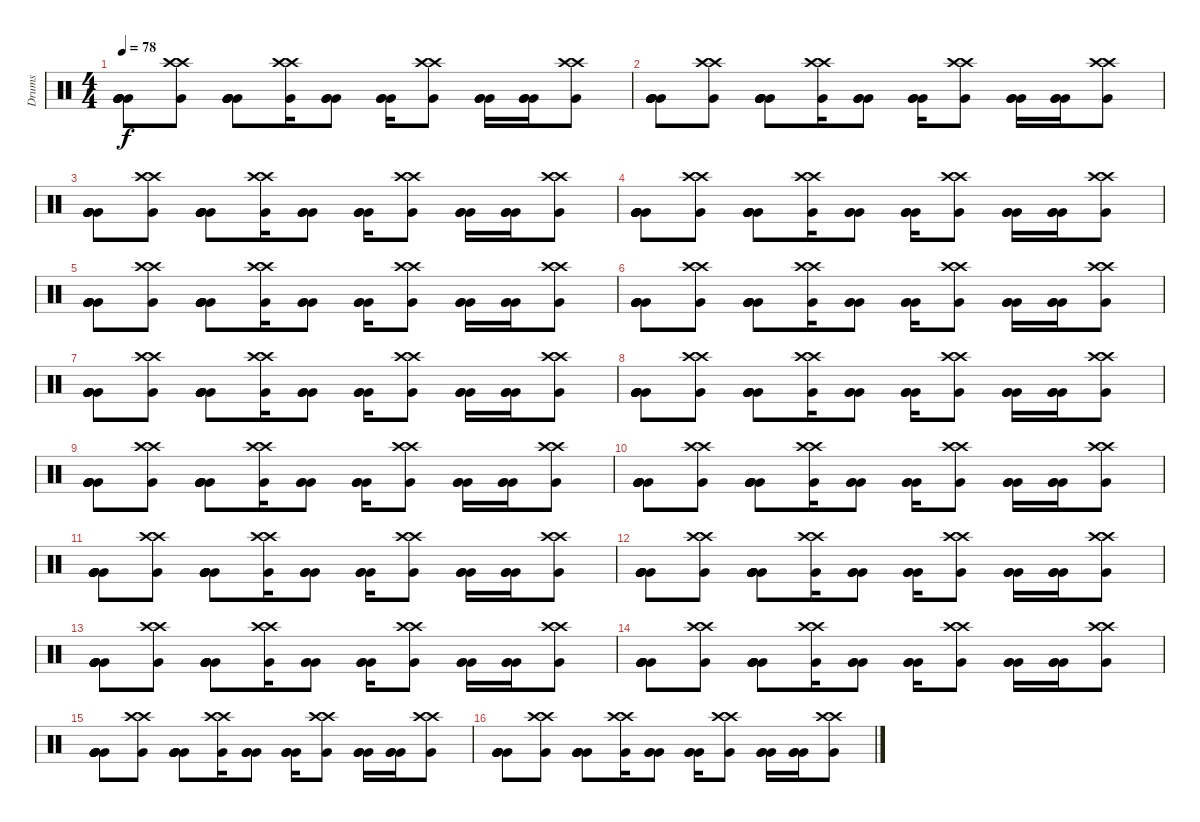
\track ("Drums" "Drums") {instrument percussion}
\staff {score}
\articulation defaults
\ts (4 4)
\tempo 78
\clef neutral
\ks c
("Very Low Tom (hit)" "Very Low Tom (hit)" "Very Low Tom (hit)" "Very Low Tom (hit)" "Very Low Tom (hit)").8{dy f} ("Crash high (hit)" "Crash high (hit)" "Very Low Tom (hit)").8 ("Very Low Tom (hit)" "Very Low Tom (hit)" "Very Low Tom (hit)" "Very Low Tom (hit)" "Very Low Tom (hit)").8 ("Crash high (hit)" "Crash high (hit)" "Very Low Tom (hit)").16 ("Very Low Tom (hit)" "Very Low Tom (hit)" "Very Low Tom (hit)").8 ("Very Low Tom (hit)" "Very Low Tom (hit)" "Very Low Tom (hit)").16 ("Crash high (hit)" "Crash high (hit)" "Very Low Tom (hit)").8 ("Very Low Tom (hit)" "Very Low Tom (hit)" "Very Low Tom (hit)").16 ("Very Low Tom (hit)" "Very Low Tom (hit)" "Very Low Tom (hit)").16 ("Crash high (hit)" "Crash high (hit)" "Very Low Tom (hit)").8 |
("Very Low Tom (hit)" "Very Low Tom (hit)" "Very Low Tom (hit)" "Very Low Tom (hit)" "Very Low Tom (hit)").8 ("Crash high (hit)" "Crash high (hit)" "Very Low Tom (hit)").8 ("Very Low Tom (hit)" "Very Low Tom (hit)" "Very Low Tom (hit)" "Very Low Tom (hit)" "Very Low Tom (hit)").8 ("Crash high (hit)" "Crash high (hit)" "Very Low Tom (hit)").16 ("Very Low Tom (hit)" "Very Low Tom (hit)" "Very Low Tom (hit)").8 ("Very Low Tom (hit)" "Very Low Tom (hit)" "Very Low Tom (hit)").16 ("Crash high (hit)" "Crash high (hit)" "Very Low Tom (hit)").8 ("Very Low Tom (hit)" "Very Low Tom (hit)" "Very Low Tom (hit)").16 ("Very Low Tom (hit)" "Very Low Tom (hit)" "Very Low Tom (hit)").16 ("Crash high (hit)" "Crash high (hit)" "Very Low Tom (hit)").8 |
("Very Low Tom (hit)" "Very Low Tom (hit)" "Very Low Tom (hit)" "Very Low Tom (hit)" "Very Low Tom (hit)").8 ("Crash high (hit)" "Crash high (hit)" "Very Low Tom (hit)").8 ("Very Low Tom (hit)" "Very Low Tom (hit)" "Very Low Tom (hit)" "Very Low Tom (hit)" "Very Low Tom (hit)").8 ("Crash high (hit)" "Crash high (hit)" "Very Low Tom (hit)").16 ("Very Low Tom (hit)" "Very Low Tom (hit)" "Very Low Tom (hit)").8 ("Very Low Tom (hit)" "Very Low Tom (hit)" "Very Low Tom (hit)").16 ("Crash high (hit)" "Crash high (hit)" "Very Low Tom (hit)").8 ("Very Low Tom (hit)" "Very Low Tom (hit)" "Very Low Tom (hit)").16 ("Very Low Tom (hit)" "Very Low Tom (hit)" "Very Low Tom (hit)").16 ("Crash high (hit)" "Crash high (hit)" "Very Low Tom (hit)").8 |
("Very Low Tom (hit)" "Very Low Tom (hit)" "Very Low Tom (hit)" "Very Low Tom (hit)" "Very Low Tom (hit)").8 ("Crash high (hit)" "Crash high (hit)" "Very Low Tom (hit)").8 ("Very Low Tom (hit)" "Very Low Tom (hit)" "Very Low Tom (hit)" "Very Low Tom (hit)" "Very Low Tom (hit)").8 ("Crash high (hit)" "Crash high (hit)" "Very Low Tom (hit)").16 ("Very Low Tom (hit)" "Very Low Tom (hit)" "Very Low Tom (hit)").8 ("Very Low Tom (hit)" "Very Low Tom (hit)" "Very Low Tom (hit)").16 ("Crash high (hit)" "Crash high (hit)" "Very Low Tom (hit)").8 ("Very Low Tom (hit)" "Very Low Tom (hit)" "Very Low Tom (hit)").16 ("Very Low Tom (hit)" "Very Low Tom (hit)" "Very Low Tom (hit)").16 ("Crash high (hit)" "Crash high (hit)" "Very Low Tom (hit)").8 |
("Very Low Tom (hit)" "Very Low Tom (hit)" "Very Low Tom (hit)" "Very Low Tom (hit)" "Very Low Tom (hit)").8 ("Crash high (hit)" "Crash high (hit)" "Very Low Tom (hit)").8 ("Very Low Tom (hit)" "Very Low Tom (hit)" "Very Low Tom (hit)" "Very Low Tom (hit)" "Very Low Tom (hit)").8 ("Crash high (hit)" "Crash high (hit)" "Very Low Tom (hit)").16 ("Very Low Tom (hit)" "Very Low Tom (hit)" "Very Low Tom (hit)").8 ("Very Low Tom (hit)" "Very Low Tom (hit)" "Very Low Tom (hit)").16 ("Crash high (hit)" "Crash high (hit)" "Very Low Tom (hit)").8 ("Very Low Tom (hit)" "Very Low Tom (hit)" "Very Low Tom (hit)").16 ("Very Low Tom (hit)" "Very Low Tom (hit)" "Very Low Tom (hit)").16 ("Crash high (hit)" "Crash high (hit)" "Very Low Tom (hit)").8 |
("Very Low Tom (hit)" "Very Low Tom (hit)" "Very Low Tom (hit)" "Very Low Tom (hit)" "Very Low Tom (hit)").8 ("Crash high (hit)" "Crash high (hit)" "Very Low Tom (hit)").8 ("Very Low Tom (hit)" "Very Low Tom (hit)" "Very Low Tom (hit)" "Very Low Tom (hit)" "Very Low Tom (hit)").8 ("Crash high (hit)" "Crash high (hit)" "Very Low Tom (hit)").16 ("Very Low Tom (hit)" "Very Low Tom (hit)" "Very Low Tom (hit)").8 ("Very Low Tom (hit)" "Very Low Tom (hit)" "Very Low Tom (hit)").16 ("Crash high (hit)" "Crash high (hit)" "Very Low Tom (hit)").8 ("Very Low Tom (hit)" "Very Low Tom (hit)" "Very Low Tom (hit)").16 ("Very Low Tom (hit)" "Very Low Tom (hit)" "Very Low Tom (hit)").16 ("Crash high (hit)" "Crash high (hit)" "Very Low Tom (hit)").8 |
("Very Low Tom (hit)" "Very Low Tom (hit)" "Very Low Tom (hit)" "Very Low Tom (hit)" "Very Low Tom (hit)").8 ("Crash high (hit)" "Crash high (hit)" "Very Low Tom (hit)").8 ("Very Low Tom (hit)" "Very Low Tom (hit)" "Very Low Tom (hit)" "Very Low Tom (hit)" "Very Low Tom (hit)").8 ("Crash high (hit)" "Crash high (hit)" "Very Low Tom (hit)").16 ("Very Low Tom (hit)" "Very Low Tom (hit)" "Very Low Tom (hit)").8 ("Very Low Tom (hit)" "Very Low Tom (hit)" "Very Low Tom (hit)").16 ("Crash high (hit)" "Crash high (hit)" "Very Low Tom (hit)").8 ("Very Low Tom (hit)" "Very Low Tom (hit)" "Very Low Tom (hit)").16 ("Very Low Tom (hit)" "Very Low Tom (hit)" "Very Low Tom (hit)").16 ("Crash high (hit)" "Crash high (hit)" "Very Low Tom (hit)").8 |
("Very Low Tom (hit)" "Very Low Tom (hit)" "Very Low Tom (hit)" "Very Low Tom (hit)" "Very Low Tom (hit)").8 ("Crash high (hit)" "Crash high (hit)" "Very Low Tom (hit)").8 ("Very Low Tom (hit)" "Very Low Tom (hit)" "Very Low Tom (hit)" "Very Low Tom (hit)" "Very Low Tom (hit)").8 ("Crash high (hit)" "Crash high (hit)" "Very Low Tom (hit)").16 ("Very Low Tom (hit)" "Very Low Tom (hit)" "Very Low Tom (hit)").8 ("Very Low Tom (hit)" "Very Low Tom (hit)" "Very Low Tom (hit)").16 ("Crash high (hit)" "Crash high (hit)" "Very Low Tom (hit)").8 ("Very Low Tom (hit)" "Very Low Tom (hit)" "Very Low Tom (hit)").16 ("Very Low Tom (hit)" "Very Low Tom (hit)" "Very Low Tom (hit)").16 ("Crash high (hit)" "Crash high (hit)" "Very Low Tom (hit)").8 |
("Very Low Tom (hit)" "Very Low Tom (hit)" "Very Low Tom (hit)" "Very Low Tom (hit)" "Very Low Tom (hit)").8 ("Crash high (hit)" "Crash high (hit)" "Very Low Tom (hit)").8 ("Very Low Tom (hit)" "Very Low Tom (hit)" "Very Low Tom (hit)" "Very Low Tom (hit)" "Very Low Tom (hit)").8 ("Crash high (hit)" "Crash high (hit)" "Very Low Tom (hit)").16 ("Very Low Tom (hit)" "Very Low Tom (hit)" "Very Low Tom (hit)").8 ("Very Low Tom (hit)" "Very Low Tom (hit)" "Very Low Tom (hit)").16 ("Crash high (hit)" "Crash high (hit)" "Very Low Tom (hit)").8 ("Very Low Tom (hit)" "Very Low Tom (hit)" "Very Low Tom (hit)").16 ("Very Low Tom (hit)" "Very Low Tom (hit)" "Very Low Tom (hit)").16 ("Crash high (hit)" "Crash high (hit)" "Very Low Tom (hit)").8 |
("Very Low Tom (hit)" "Very Low Tom (hit)" "Very Low Tom (hit)" "Very Low Tom (hit)" "Very Low Tom (hit)").8 ("Crash high (hit)" "Crash high (hit)" "Very Low Tom (hit)").8 ("Very Low Tom (hit)" "Very Low Tom (hit)" "Very Low Tom (hit)" "Very Low Tom (hit)" "Very Low Tom (hit)").8 ("Crash high (hit)" "Crash high (hit)" "Very Low Tom (hit)").16 ("Very Low Tom (hit)" "Very Low Tom (hit)" "Very Low Tom (hit)").8 ("Very Low Tom (hit)" "Very Low Tom (hit)" "Very Low Tom (hit)").16 ("Crash high (hit)" "Crash high (hit)" "Very Low Tom (hit)").8 ("Very Low Tom (hit)" "Very Low Tom (hit)" "Very Low Tom (hit)").16 ("Very Low Tom (hit)" "Very Low Tom (hit)" "Very Low Tom (hit)").16 ("Crash high (hit)" "Crash high (hit)" "Very Low Tom (hit)").8 |
("Very Low Tom (hit)" "Very Low Tom (hit)" "Very Low Tom (hit)" "Very Low Tom (hit)" "Very Low Tom (hit)").8 ("Crash high (hit)" "Crash high (hit)" "Very Low Tom (hit)").8 ("Very Low Tom (hit)" "Very Low Tom (hit)" "Very Low Tom (hit)" "Very Low Tom (hit)" "Very Low Tom (hit)").8 ("Crash high (hit)" "Crash high (hit)" "Very Low Tom (hit)").16 ("Very Low Tom (hit)" "Very Low Tom (hit)" "Very Low Tom (hit)").8 ("Very Low Tom (hit)" "Very Low Tom (hit)" "Very Low Tom (hit)").16 ("Crash high (hit)" "Crash high (hit)" "Very Low Tom (hit)").8 ("Very Low Tom (hit)" "Very Low Tom (hit)" "Very Low Tom (hit)").16 ("Very Low Tom (hit)" "Very Low Tom (hit)" "Very Low Tom (hit)").16 ("Crash high (hit)" "Crash high (hit)" "Very Low Tom (hit)").8 |
("Very Low Tom (hit)" "Very Low Tom (hit)" "Very Low Tom (hit)" "Very Low Tom (hit)" "Very Low Tom (hit)").8 ("Crash high (hit)" "Crash high (hit)" "Very Low Tom (hit)").8 ("Very Low Tom (hit)" "Very Low Tom (hit)" "Very Low Tom (hit)" "Very Low Tom (hit)" "Very Low Tom (hit)").8 ("Crash high (hit)" "Crash high (hit)" "Very Low Tom (hit)").16 ("Very Low Tom (hit)" "Very Low Tom (hit)" "Very Low Tom (hit)").8 ("Very Low Tom (hit)" "Very Low Tom (hit)" "Very Low Tom (hit)").16 ("Crash high (hit)" "Crash high (hit)" "Very Low Tom (hit)").8 ("Very Low Tom (hit)" "Very Low Tom (hit)" "Very Low Tom (hit)").16 ("Very Low Tom (hit)" "Very Low Tom (hit)" "Very Low Tom (hit)").16 ("Crash high (hit)" "Crash high (hit)" "Very Low Tom (hit)").8 |
("Very Low Tom (hit)" "Very Low Tom (hit)" "Very Low Tom (hit)" "Very Low Tom (hit)" "Very Low Tom (hit)").8 ("Crash high (hit)" "Crash high (hit)" "Very Low Tom (hit)").8 ("Very Low Tom (hit)" "Very Low Tom (hit)" "Very Low Tom (hit)" "Very Low Tom (hit)" "Very Low Tom (hit)").8 ("Crash high (hit)" "Crash high (hit)" "Very Low Tom (hit)").16 ("Very Low Tom (hit)" "Very Low Tom (hit)" "Very Low Tom (hit)").8 ("Very Low Tom (hit)" "Very Low Tom (hit)" "Very Low Tom (hit)").16 ("Crash high (hit)" "Crash high (hit)" "Very Low Tom (hit)").8 ("Very Low Tom (hit)" "Very Low Tom (hit)" "Very Low Tom (hit)").16 ("Very Low Tom (hit)" "Very Low Tom (hit)" "Very Low Tom (hit)").16 ("Crash high (hit)" "Crash high (hit)" "Very Low Tom (hit)").8 |
("Very Low Tom (hit)" "Very Low Tom (hit)" "Very Low Tom (hit)" "Very Low Tom (hit)" "Very Low Tom (hit)").8 ("Crash high (hit)" "Crash high (hit)" "Very Low Tom (hit)").8 ("Very Low Tom (hit)" "Very Low Tom (hit)" "Very Low Tom (hit)" "Very Low Tom (hit)" "Very Low Tom (hit)").8 ("Crash high (hit)" "Crash high (hit)" "Very Low Tom (hit)").16 ("Very Low Tom (hit)" "Very Low Tom (hit)" "Very Low Tom (hit)").8 ("Very Low Tom (hit)" "Very Low Tom (hit)" "Very Low Tom (hit)").16 ("Crash high (hit)" "Crash high (hit)" "Very Low Tom (hit)").8 ("Very Low Tom (hit)" "Very Low Tom (hit)" "Very Low Tom (hit)").16 ("Very Low Tom (hit)" "Very Low Tom (hit)" "Very Low Tom (hit)").16 ("Crash high (hit)" "Crash high (hit)" "Very Low Tom (hit)").8 |
("Very Low Tom (hit)" "Very Low Tom (hit)" "Very Low Tom (hit)" "Very Low Tom (hit)" "Very Low Tom (hit)").8 ("Crash high (hit)" "Crash high (hit)" "Very Low Tom (hit)").8 ("Very Low Tom (hit)" "Very Low Tom (hit)" "Very Low Tom (hit)" "Very Low Tom (hit)" "Very Low Tom (hit)").8 ("Crash high (hit)" "Crash high (hit)" "Very Low Tom (hit)").16 ("Very Low Tom (hit)" "Very Low Tom (hit)" "Very Low Tom (hit)").8 ("Very Low Tom (hit)" "Very Low Tom (hit)" "Very Low Tom (hit)").16 ("Crash high (hit)" "Crash high (hit)" "Very Low Tom (hit)").8 ("Very Low Tom (hit)" "Very Low Tom (hit)" "Very Low Tom (hit)").16 ("Very Low Tom (hit)" "Very Low Tom (hit)" "Very Low Tom (hit)").16 ("Crash high (hit)" "Crash high (hit)" "Very Low Tom (hit)").8 |
("Very Low Tom (hit)" "Very Low Tom (hit)" "Very Low Tom (hit)" "Very Low Tom (hit)" "Very Low Tom (hit)").8 ("Crash high (hit)" "Crash high (hit)" "Very Low Tom (hit)").8 ("Very Low Tom (hit)" "Very Low Tom (hit)" "Very Low Tom (hit)" "Very Low Tom (hit)" "Very Low Tom (hit)").8 ("Crash high (hit)" "Crash high (hit)" "Very Low Tom (hit)").16 ("Very Low Tom (hit)" "Very Low Tom (hit)" "Very Low Tom (hit)").8 ("Very Low Tom (hit)" "Very Low Tom (hit)" "Very Low Tom (hit)").16 ("Crash high (hit)" "Crash high (hit)" "Very Low Tom (hit)").8 ("Very Low Tom (hit)" "Very Low Tom (hit)" "Very Low Tom (hit)").16 ("Very Low Tom (hit)" "Very Low Tom (hit)" "Very Low Tom (hit)").16 ("Crash high (hit)" "Crash high (hit)" "Very Low Tom (hit)").8
